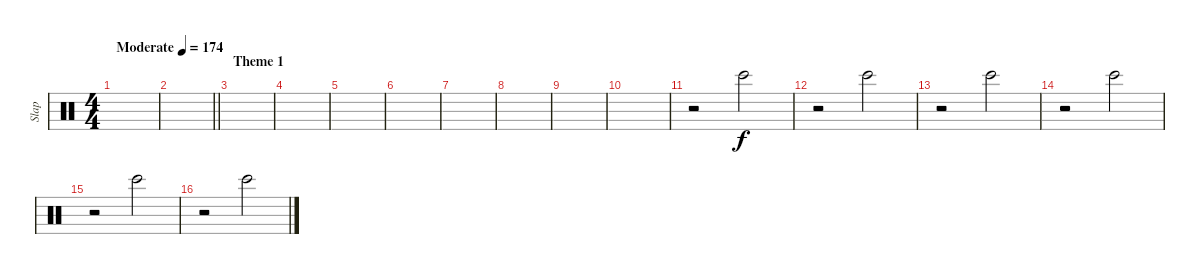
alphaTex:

\track ("Slap" "Slap") {instrument percussion}
\staff {score}
\articulation defaults
\ts (4 4)
\tempo (174 "Moderate")
\clef neutral
\ks c
|
\barLineRight lightlight
|
\section ("" "Theme 1")
|
|
|
|
|
|
|
|
r.2 "Bongo High (hit)".2 |
r.2 "Bongo High (hit)".2 |
r.2 "Bongo High (hit)".2 |
r.2 "Bongo High (hit)".2 |
r.2 "Bongo High (hit)".2 |
r.2 "Bongo High (hit)".2
